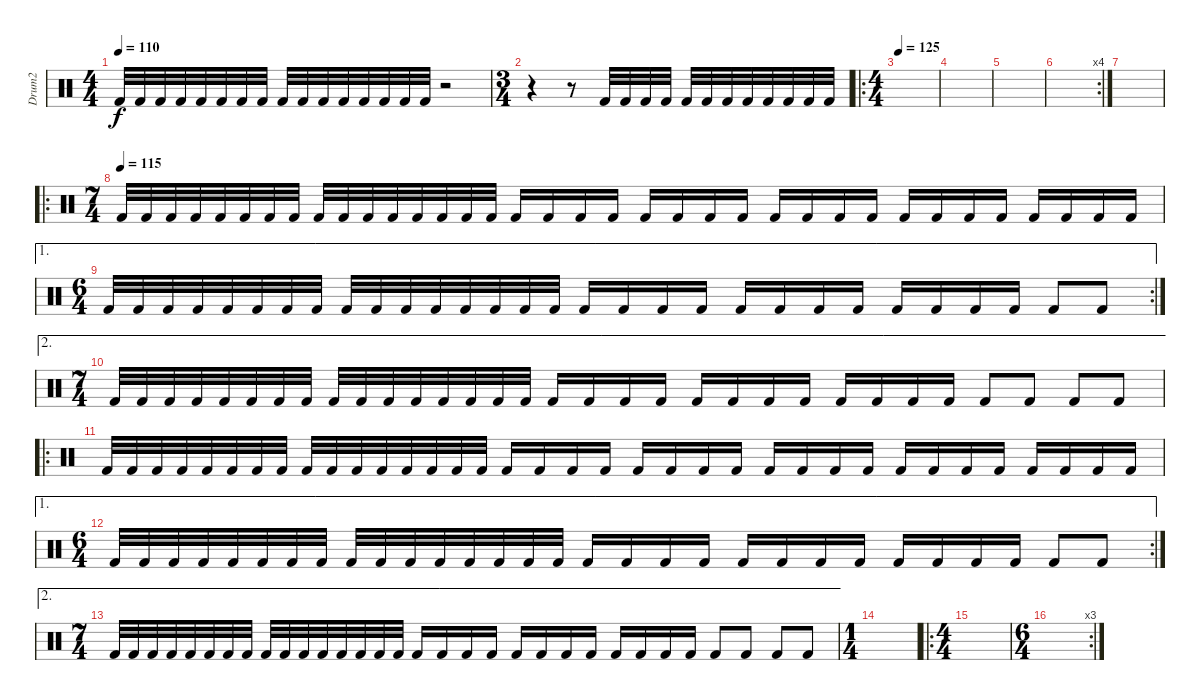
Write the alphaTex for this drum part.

\track ("Drum2" "Drum2") {instrument percussion}
\staff {score}
\articulation defaults
\ts (4 4)
\tempo 110
\clef neutral
\ks c "Kick (hit) 2".32{dy f} "Kick (hit) 2".32 "Kick (hit) 2".32 "Kick (hit) 2".32 "Kick (hit) 2".32 "Kick (hit) 2".32 "Kick (hit) 2".32 "Kick (hit) 2".32 "Kick (hit) 2".32 "Kick (hit) 2".32 "Kick (hit) 2".32 "Kick (hit) 2".32 "Kick (hit) 2".32 "Kick (hit) 2".32 "Kick (hit) 2".32 "Kick (hit) 2".32
r.2 |
\ts (3 4)
r.4 r.8 "Kick (hit) 2".32 "Kick (hit) 2".32 "Kick (hit) 2".32 "Kick (hit) 2".32 "Kick (hit) 2".32 "Kick (hit) 2".32 "Kick (hit) 2".32 "Kick (hit) 2".32 "Kick (hit) 2".32 "Kick (hit) 2".32 "Kick (hit) 2".32 "Kick (hit) 2".32 |
\ro
\ts (4 4)
\tempo 125
|
|
|
\rc 4
|
|
\ro
\ts (7 4)
\tempo (115)
"Kick (hit) 2".32 "Kick (hit) 2".32 "Kick (hit) 2".32 "Kick (hit) 2".32 "Kick (hit) 2".32 "Kick (hit) 2".32 "Kick (hit) 2".32 "Kick (hit) 2".32 "Kick (hit) 2".32 "Kick (hit) 2".32 "Kick (hit) 2".32 "Kick (hit) 2".32 "Kick (hit) 2".32 "Kick (hit) 2".32 "Kick (hit) 2".32 "Kick (hit) 2".32 "Kick (hit) 2".16 "Kick (hit) 2".16 "Kick (hit) 2".16 "Kick (hit) 2".16 "Kick (hit) 2".16 "Kick (hit) 2".16 "Kick (hit) 2".16 "Kick (hit) 2".16 "Kick (hit) 2".16 "Kick (hit) 2".16 "Kick (hit) 2".16 "Kick (hit) 2".16 "Kick (hit) 2".16 "Kick (hit) 2".16 "Kick (hit) 2".16 "Kick (hit) 2".16 "Kick (hit) 2".16 "Kick (hit) 2".16 "Kick (hit) 2".16 "Kick (hit) 2".16 |
\ae 1
\rc 2
\ts (6 4)
"Kick (hit) 2".32 "Kick (hit) 2".32 "Kick (hit) 2".32 "Kick (hit) 2".32 "Kick (hit) 2".32 "Kick (hit) 2".32 "Kick (hit) 2".32 "Kick (hit) 2".32 "Kick (hit) 2".32 "Kick (hit) 2".32 "Kick (hit) 2".32 "Kick (hit) 2".32 "Kick (hit) 2".32 "Kick (hit) 2".32 "Kick (hit) 2".32 "Kick (hit) 2".32 "Kick (hit) 2".16 "Kick (hit) 2".16 "Kick (hit) 2".16 "Kick (hit) 2".16 "Kick (hit) 2".16 "Kick (hit) 2".16 "Kick (hit) 2".16 "Kick (hit) 2".16 "Kick (hit) 2".16 "Kick (hit) 2".16 "Kick (hit) 2".16 "Kick (hit) 2".16 "Kick (hit) 2".8 "Kick (hit) 2".8 |
\ae 2
\ts (7 4)
"Kick (hit) 2".32 "Kick (hit) 2".32 "Kick (hit) 2".32 "Kick (hit) 2".32 "Kick (hit) 2".32 "Kick (hit) 2".32 "Kick (hit) 2".32 "Kick (hit) 2".32 "Kick (hit) 2".32 "Kick (hit) 2".32 "Kick (hit) 2".32 "Kick (hit) 2".32 "Kick (hit) 2".32 "Kick (hit) 2".32 "Kick (hit) 2".32 "Kick (hit) 2".32 "Kick (hit) 2".16 "Kick (hit) 2".16 "Kick (hit) 2".16 "Kick (hit) 2".16 "Kick (hit) 2".16 "Kick (hit) 2".16 "Kick (hit) 2".16 "Kick (hit) 2".16 "Kick (hit) 2".16 "Kick (hit) 2".16 "Kick (hit) 2".16 "Kick (hit) 2".16 "Kick (hit) 2".8 "Kick (hit) 2".8 "Kick (hit) 2".8 "Kick (hit) 2".8 |
\ro "Kick (hit) 2".32 "Kick (hit) 2".32 "Kick (hit) 2".32 "Kick (hit) 2".32 "Kick (hit) 2".32 "Kick (hit) 2".32 "Kick (hit) 2".32 "Kick (hit) 2".32 "Kick (hit) 2".32 "Kick (hit) 2".32 "Kick (hit) 2".32 "Kick (hit) 2".32 "Kick (hit) 2".32 "Kick (hit) 2".32 "Kick (hit) 2".32 "Kick (hit) 2".32 "Kick (hit) 2".16 "Kick (hit) 2".16 "Kick (hit) 2".16 "Kick (hit) 2".16 "Kick (hit) 2".16 "Kick (hit) 2".16 "Kick (hit) 2".16 "Kick (hit) 2".16 "Kick (hit) 2".16 "Kick (hit) 2".16 "Kick (hit) 2".16 "Kick (hit) 2".16 "Kick (hit) 2".16 "Kick (hit) 2".16 "Kick (hit) 2".16 "Kick (hit) 2".16 "Kick (hit) 2".16 "Kick (hit) 2".16 "Kick (hit) 2".16 "Kick (hit) 2".16
|
\ae 1
\rc 2
\ts (6 4)
"Kick (hit) 2".32 "Kick (hit) 2".32 "Kick (hit) 2".32 "Kick (hit) 2".32 "Kick (hit) 2".32 "Kick (hit) 2".32 "Kick (hit) 2".32 "Kick (hit) 2".32 "Kick (hit) 2".32 "Kick (hit) 2".32 "Kick (hit) 2".32 "Kick (hit) 2".32 "Kick (hit) 2".32 "Kick (hit) 2".32 "Kick (hit) 2".32 "Kick (hit) 2".32 "Kick (hit) 2".16 "Kick (hit) 2".16 "Kick (hit) 2".16 "Kick (hit) 2".16 "Kick (hit) 2".16 "Kick (hit) 2".16 "Kick (hit) 2".16 "Kick (hit) 2".16 "Kick (hit) 2".16 "Kick (hit) 2".16 "Kick (hit) 2".16 "Kick (hit) 2".16 "Kick (hit) 2".8 "Kick (hit) 2".8 |
\ae 2
\ts (7 4)
"Kick (hit) 2".32 "Kick (hit) 2".32 "Kick (hit) 2".32 "Kick (hit) 2".32 "Kick (hit) 2".32 "Kick (hit) 2".32 "Kick (hit) 2".32 "Kick (hit) 2".32 "Kick (hit) 2".32 "Kick (hit) 2".32 "Kick (hit) 2".32 "Kick (hit) 2".32 "Kick (hit) 2".32 "Kick (hit) 2".32 "Kick (hit) 2".32 "Kick (hit) 2".32 "Kick (hit) 2".16 "Kick (hit) 2".16 "Kick (hit) 2".16 "Kick (hit) 2".16 "Kick (hit) 2".16 "Kick (hit) 2".16 "Kick (hit) 2".16 "Kick (hit) 2".16 "Kick (hit) 2".16 "Kick (hit) 2".16 "Kick (hit) 2".16 "Kick (hit) 2".16 "Kick (hit) 2".8 "Kick (hit) 2".8 "Kick (hit) 2".8 "Kick (hit) 2".8 |
\ts (1 4)
|
\ro
\ts (4 4)
|
\rc 3
\ts (6 4)
